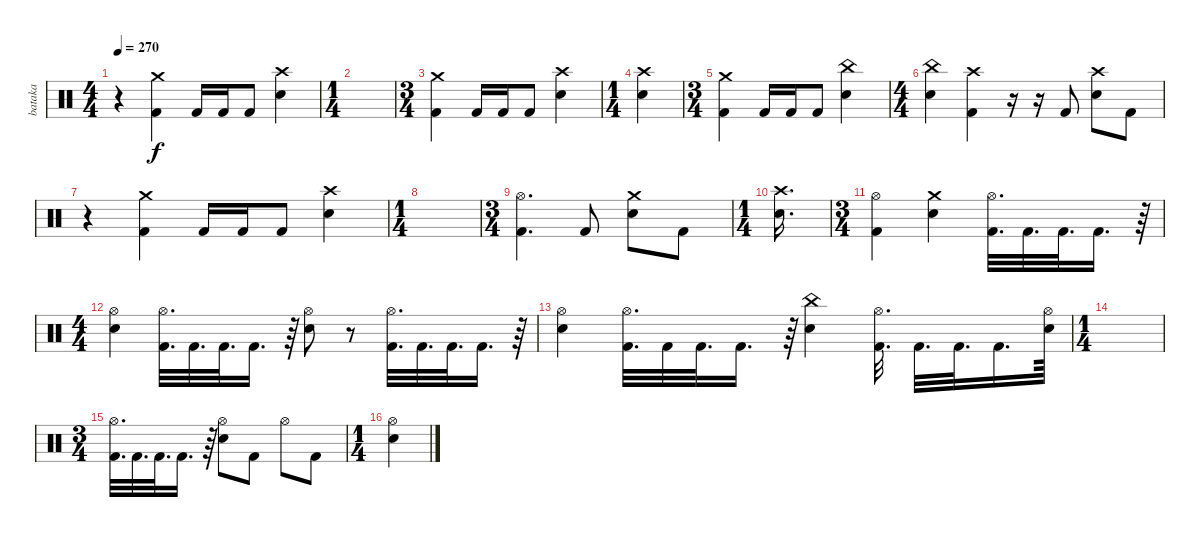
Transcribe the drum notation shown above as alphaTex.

\track ("bataka" "bataka") {instrument percussion}
\staff {score}
\articulation defaults
\ts (4 4)
\tempo 270
\clef neutral
\ks c
r.4{dy f} ("Crash medium (hit)" "Kick (hit) 2").4 "Kick (hit) 2".16 "Kick (hit) 2".16 "Kick (hit) 2".8 ("Crash high (hit)" "Electric Snare (hit)").4 |
\ts (1 4)
|
\ts (3 4)
("Crash medium (hit)" "Kick (hit) 2").4 "Kick (hit) 2".16 "Kick (hit) 2".16 "Kick (hit) 2".8 ("Crash high (hit)" "Electric Snare (hit)").4 |
\ts (1 4)
("Crash high (hit)" "Electric Snare (hit)").4 |
\ts (3 4)
("Crash medium (hit)" "Kick (hit) 2").4 "Kick (hit) 2".16 "Kick (hit) 2".16 "Kick (hit) 2".8 ("China (hit)" "Electric Snare (hit)").4 |
\ts (4 4)
("China (hit)" "Electric Snare (hit)").4 ("Crash high (hit)" "Kick (hit) 2").4 r.16 r.16 "Kick (hit) 2".8 ("Crash high (hit)" "Electric Snare (hit)").8 "Kick (hit) 2".8 |
r.4 ("Crash medium (hit)" "Kick (hit) 2").4 "Kick (hit) 2".16 "Kick (hit) 2".16 "Kick (hit) 2".8 ("Crash high (hit)" "Electric Snare (hit)").4 |
\ts (1 4)
|
\ts (3 4)
("Hi-Hat (open)" "Kick (hit) 2").4{d} "Kick (hit) 2".8 ("Crash medium (hit)" "Electric Snare (hit)").8 "Kick (hit) 2".8 |
\ts (1 4)
("Crash high (hit)" "Electric Snare (hit)").16{d} |
\ts (3 4)
("Hi-Hat (open)" "Kick (hit) 2").4 ("Crash medium (hit)" "Electric Snare (hit)").4 ("Hi-Hat (open)" "Kick (hit) 2").32{d} "Kick (hit) 2".32{d} "Kick (hit) 2".32{d} "Kick (hit) 2".16{d} r.64 |
\ts (4 4)
("Hi-Hat (open)" "Electric Snare (hit)").4 ("Hi-Hat (open)" "Kick (hit) 2").32{d} "Kick (hit) 2".32{d} "Kick (hit) 2".32{d} "Kick (hit) 2".16{d} r.64 ("Hi-Hat (open)" "Electric Snare (hit)").8 r.8 ("Hi-Hat (open)" "Kick (hit) 2").32{d} "Kick (hit) 2".32{d} "Kick (hit) 2".32{d} "Kick (hit) 2".16{d} r.64 |
("Hi-Hat (open)" "Electric Snare (hit)").4 ("Hi-Hat (open)" "Kick (hit) 2").32{d} "Kick (hit) 2".32 "Kick (hit) 2".32{d} "Kick (hit) 2".16{d} r.64 ("China (hit)" "Electric Snare (hit)").4 ("Hi-Hat (open)" "Kick (hit) 2").32{d} "Kick (hit) 2".32{d} "Kick (hit) 2".32{d} "Kick (hit) 2".16{d} ("Hi-Hat (open)" "Electric Snare (hit)").64 |
\ts (1 4)
|
\ts (3 4)
("Hi-Hat (open)" "Kick (hit) 2").32{d} "Kick (hit) 2".32{d} "Kick (hit) 2".32{d} "Kick (hit) 2".16{d} r.64 ("Hi-Hat (open)" "Electric Snare (hit)").8 "Kick (hit) 2".8 "Hi-Hat (open)".8 "Kick (hit) 2".8 |
\ts (1 4)
("Hi-Hat (open)" "Electric Snare (hit)").4
